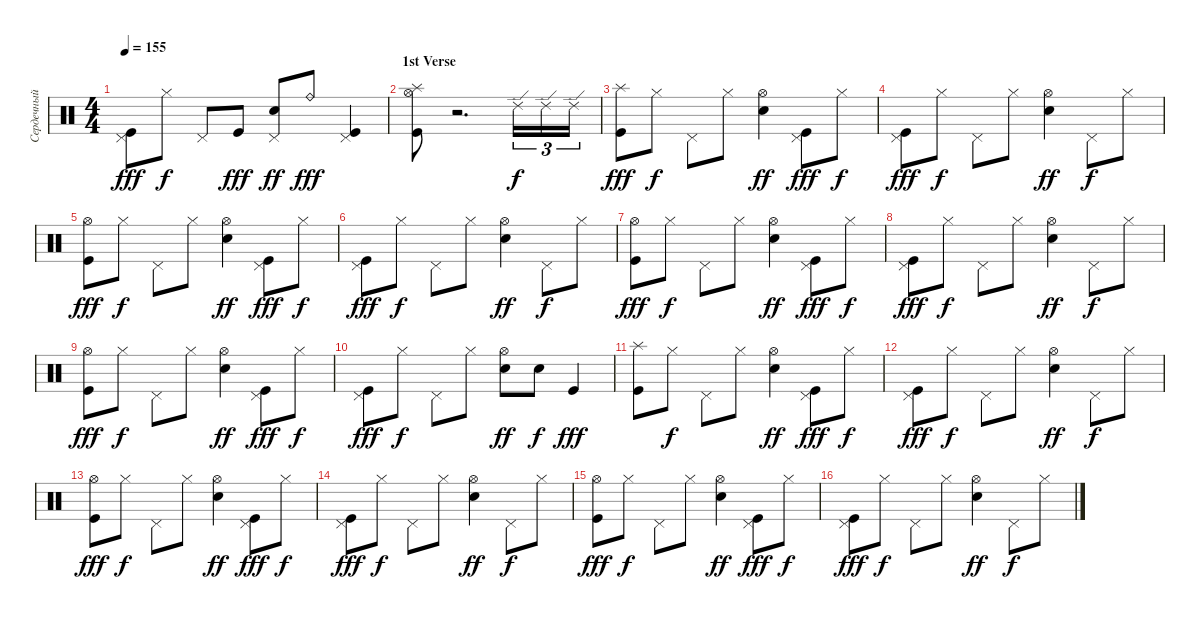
\track ("Сердечный (Ударные)" "Сердечный ") {instrument percussion}
\staff {score}
\articulation defaults
\ts (4 4)
\tempo 155
\clef neutral
\ks c
("Kick (hit)" "Pedal Hi-Hat (hit)").8{dy fff} "Hi-Hat (closed)".8{dy f} "Pedal Hi-Hat (hit)".8 "Kick (hit)".8{dy fff} ("Electric Snare (hit)" "Pedal Hi-Hat (hit)").8{dy ff} "Ride (bell)".8{dy fff} ("Kick (hit)" "Pedal Hi-Hat (hit)").4 |
\section ("" "1st Verse")
("Hi-Hat (open)" "Splash (hit)" "Kick (hit)").8 r.2{d} "Ride (edge) 2".16{tu (3 2) dy f} "Ride (edge) 2".16{tu (3 2)} "Ride (edge) 2".16{tu (3 2)} |
("Splash (hit)" "Kick (hit)").8{dy fff} "Hi-Hat (closed)".8{dy f} "Pedal Hi-Hat (hit)".8 "Hi-Hat (closed)".8 ("Hi-Hat (open)" "Electric Snare (hit)").4{dy ff} ("Kick (hit)" "Pedal Hi-Hat (hit)").8{dy fff} "Hi-Hat (closed)".8{dy f} |
("Kick (hit)" "Pedal Hi-Hat (hit)").8{dy fff} "Hi-Hat (closed)".8{dy f} "Pedal Hi-Hat (hit)".8 "Hi-Hat (closed)".8 ("Hi-Hat (open)" "Electric Snare (hit)").4{dy ff} "Pedal Hi-Hat (hit)".8{dy f} "Hi-Hat (closed)".8 |
("Hi-Hat (open)" "Kick (hit)").8{dy fff} "Hi-Hat (closed)".8{dy f} "Pedal Hi-Hat (hit)".8 "Hi-Hat (closed)".8 ("Hi-Hat (open)" "Electric Snare (hit)").4{dy ff} ("Kick (hit)" "Pedal Hi-Hat (hit)").8{dy fff} "Hi-Hat (closed)".8{dy f} |
("Kick (hit)" "Pedal Hi-Hat (hit)").8{dy fff} "Hi-Hat (closed)".8{dy f} "Pedal Hi-Hat (hit)".8 "Hi-Hat (closed)".8 ("Hi-Hat (open)" "Electric Snare (hit)").4{dy ff} "Pedal Hi-Hat (hit)".8{dy f} "Hi-Hat (closed)".8 |
("Hi-Hat (open)" "Kick (hit)").8{dy fff} "Hi-Hat (closed)".8{dy f} "Pedal Hi-Hat (hit)".8 "Hi-Hat (closed)".8 ("Hi-Hat (open)" "Electric Snare (hit)").4{dy ff} ("Kick (hit)" "Pedal Hi-Hat (hit)").8{dy fff} "Hi-Hat (closed)".8{dy f} |
("Kick (hit)" "Pedal Hi-Hat (hit)").8{dy fff} "Hi-Hat (closed)".8{dy f} "Pedal Hi-Hat (hit)".8 "Hi-Hat (closed)".8 ("Hi-Hat (open)" "Electric Snare (hit)").4{dy ff} "Pedal Hi-Hat (hit)".8{dy f} "Hi-Hat (closed)".8 |
("Hi-Hat (open)" "Kick (hit)").8{dy fff} "Hi-Hat (closed)".8{dy f} "Pedal Hi-Hat (hit)".8 "Hi-Hat (closed)".8 ("Hi-Hat (open)" "Electric Snare (hit)").4{dy ff} ("Kick (hit)" "Pedal Hi-Hat (hit)").8{dy fff} "Hi-Hat (closed)".8{dy f} |
("Kick (hit)" "Pedal Hi-Hat (hit)").8{dy fff} "Hi-Hat (closed)".8{dy f} "Pedal Hi-Hat (hit)".8 "Hi-Hat (closed)".8 ("Hi-Hat (open)" "Electric Snare (hit)").8{dy ff} "Electric Snare (hit)".8{dy f} "Kick (hit)".4{dy fff} |
("Splash (hit)" "Kick (hit)").8 "Hi-Hat (closed)".8{dy f} "Pedal Hi-Hat (hit)".8 "Hi-Hat (closed)".8 ("Hi-Hat (open)" "Electric Snare (hit)").4{dy ff} ("Kick (hit)" "Pedal Hi-Hat (hit)").8{dy fff} "Hi-Hat (closed)".8{dy f} |
("Kick (hit)" "Pedal Hi-Hat (hit)").8{dy fff} "Hi-Hat (closed)".8{dy f} "Pedal Hi-Hat (hit)".8 "Hi-Hat (closed)".8 ("Hi-Hat (open)" "Electric Snare (hit)").4{dy ff} "Pedal Hi-Hat (hit)".8{dy f} "Hi-Hat (closed)".8 |
("Hi-Hat (open)" "Kick (hit)").8{dy fff} "Hi-Hat (closed)".8{dy f} "Pedal Hi-Hat (hit)".8 "Hi-Hat (closed)".8 ("Hi-Hat (open)" "Electric Snare (hit)").4{dy ff} ("Kick (hit)" "Pedal Hi-Hat (hit)").8{dy fff} "Hi-Hat (closed)".8{dy f} |
("Kick (hit)" "Pedal Hi-Hat (hit)").8{dy fff} "Hi-Hat (closed)".8{dy f} "Pedal Hi-Hat (hit)".8 "Hi-Hat (closed)".8 ("Hi-Hat (open)" "Electric Snare (hit)").4{dy ff} "Pedal Hi-Hat (hit)".8{dy f} "Hi-Hat (closed)".8 |
("Hi-Hat (open)" "Kick (hit)").8{dy fff} "Hi-Hat (closed)".8{dy f} "Pedal Hi-Hat (hit)".8 "Hi-Hat (closed)".8 ("Hi-Hat (open)" "Electric Snare (hit)").4{dy ff} ("Kick (hit)" "Pedal Hi-Hat (hit)").8{dy fff} "Hi-Hat (closed)".8{dy f} |
("Kick (hit)" "Pedal Hi-Hat (hit)").8{dy fff} "Hi-Hat (closed)".8{dy f} "Pedal Hi-Hat (hit)".8 "Hi-Hat (closed)".8 ("Hi-Hat (open)" "Electric Snare (hit)").4{dy ff} "Pedal Hi-Hat (hit)".8{dy f} "Hi-Hat (closed)".8
